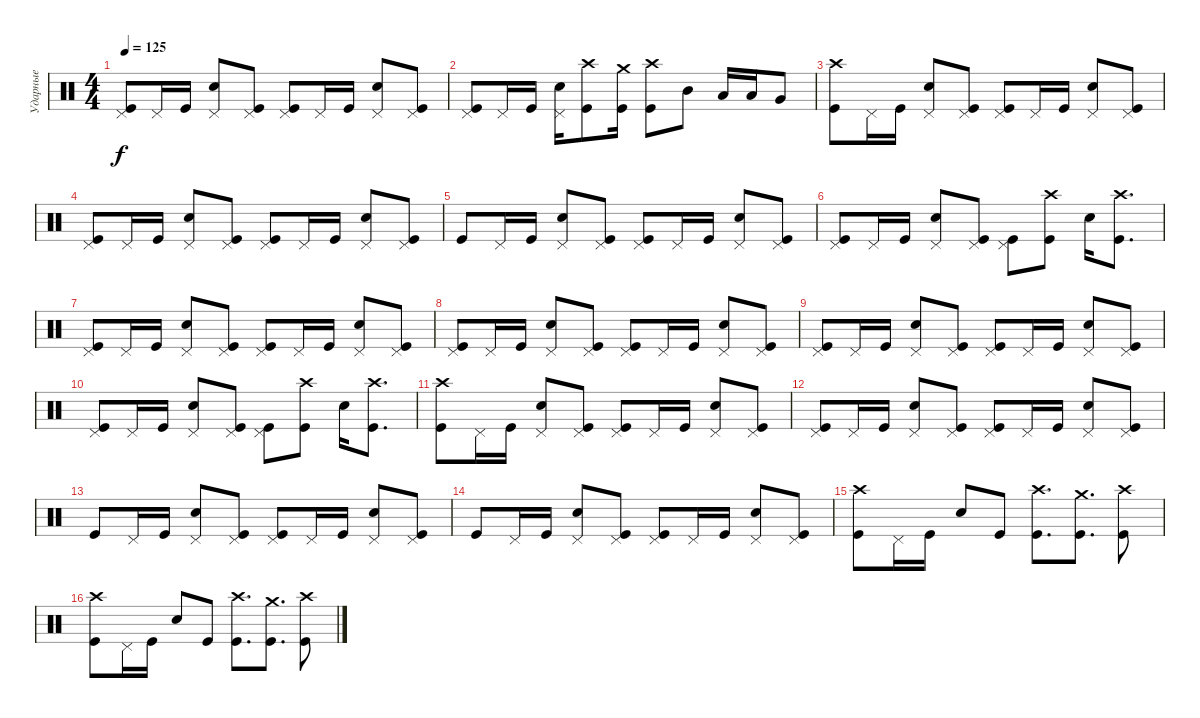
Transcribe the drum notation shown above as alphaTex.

\track ("Ударные" "Ударные") {instrument percussion}
\staff {score}
\articulation defaults
\ts (4 4)
\tempo 125
\clef neutral
\ks c
("Kick (hit)" "Pedal Hi-Hat (hit)").8{dy f} "Pedal Hi-Hat (hit)".16 "Kick (hit)".16 ("Pedal Hi-Hat (hit)" "Snare (hit) 2").8 ("Kick (hit)" "Pedal Hi-Hat (hit)").8 ("Kick (hit)" "Pedal Hi-Hat (hit)").8 "Pedal Hi-Hat (hit)".16 "Kick (hit)".16 ("Pedal Hi-Hat (hit)" "Snare (hit) 2").8 ("Kick (hit)" "Pedal Hi-Hat (hit)").8 |
("Kick (hit)" "Pedal Hi-Hat (hit)").8 "Pedal Hi-Hat (hit)".16 "Kick (hit)".16 ("Pedal Hi-Hat (hit)" "Snare (hit) 2").16 ("Kick (hit)" "Crash high (hit)").8 ("Kick (hit)" "Crash medium (hit)").16 ("Kick (hit)" "Crash high (hit)").8 "Mid Tom (hit)".8 "Low Tom (hit)".16 "Low Tom (hit)".16 "Very Low Tom (hit)".8 |
("Kick (hit)" "Crash high (hit)").8 "Pedal Hi-Hat (hit)".16 "Kick (hit)".16 ("Pedal Hi-Hat (hit)" "Snare (hit) 2").8 ("Kick (hit)" "Pedal Hi-Hat (hit)").8 ("Kick (hit)" "Pedal Hi-Hat (hit)").8 "Pedal Hi-Hat (hit)".16 "Kick (hit)".16 ("Pedal Hi-Hat (hit)" "Snare (hit) 2").8 ("Kick (hit)" "Pedal Hi-Hat (hit)").8 |
("Kick (hit)" "Pedal Hi-Hat (hit)").8 "Pedal Hi-Hat (hit)".16 "Kick (hit)".16 ("Pedal Hi-Hat (hit)" "Snare (hit) 2").8 ("Kick (hit)" "Pedal Hi-Hat (hit)").8 ("Kick (hit)" "Pedal Hi-Hat (hit)").8 "Pedal Hi-Hat (hit)".16 "Kick (hit)".16 ("Pedal Hi-Hat (hit)" "Snare (hit) 2").8 ("Kick (hit)" "Pedal Hi-Hat (hit)").8 |
"Kick (hit)".8 "Pedal Hi-Hat (hit)".16 "Kick (hit)".16 ("Pedal Hi-Hat (hit)" "Snare (hit) 2").8 ("Kick (hit)" "Pedal Hi-Hat (hit)").8 ("Kick (hit)" "Pedal Hi-Hat (hit)").8 "Pedal Hi-Hat (hit)".16 "Kick (hit)".16 ("Pedal Hi-Hat (hit)" "Snare (hit) 2").8 ("Kick (hit)" "Pedal Hi-Hat (hit)").8 |
("Kick (hit)" "Pedal Hi-Hat (hit)").8 "Pedal Hi-Hat (hit)".16 "Kick (hit)".16 ("Pedal Hi-Hat (hit)" "Snare (hit) 2").8 ("Kick (hit)" "Pedal Hi-Hat (hit)").8 ("Kick (hit)" "Pedal Hi-Hat (hit)").8 ("Kick (hit)" "Crash high (hit)").8 "Snare (hit) 2".16 ("Kick (hit)" "Crash high (hit)").8{d} |
("Kick (hit)" "Pedal Hi-Hat (hit)").8 "Pedal Hi-Hat (hit)".16 "Kick (hit)".16 ("Pedal Hi-Hat (hit)" "Snare (hit) 2").8 ("Kick (hit)" "Pedal Hi-Hat (hit)").8 ("Kick (hit)" "Pedal Hi-Hat (hit)").8 "Pedal Hi-Hat (hit)".16 "Kick (hit)".16 ("Pedal Hi-Hat (hit)" "Snare (hit) 2").8 ("Kick (hit)" "Pedal Hi-Hat (hit)").8 |
("Kick (hit)" "Pedal Hi-Hat (hit)").8 "Pedal Hi-Hat (hit)".16 "Kick (hit)".16 ("Pedal Hi-Hat (hit)" "Snare (hit) 2").8 ("Kick (hit)" "Pedal Hi-Hat (hit)").8 ("Kick (hit)" "Pedal Hi-Hat (hit)").8 "Pedal Hi-Hat (hit)".16 "Kick (hit)".16 ("Pedal Hi-Hat (hit)" "Snare (hit) 2").8 ("Kick (hit)" "Pedal Hi-Hat (hit)").8 |
("Kick (hit)" "Pedal Hi-Hat (hit)").8 "Pedal Hi-Hat (hit)".16 "Kick (hit)".16 ("Pedal Hi-Hat (hit)" "Snare (hit) 2").8 ("Kick (hit)" "Pedal Hi-Hat (hit)").8 ("Kick (hit)" "Pedal Hi-Hat (hit)").8 "Pedal Hi-Hat (hit)".16 "Kick (hit)".16 ("Pedal Hi-Hat (hit)" "Snare (hit) 2").8 ("Kick (hit)" "Pedal Hi-Hat (hit)").8 |
("Kick (hit)" "Pedal Hi-Hat (hit)").8 "Pedal Hi-Hat (hit)".16 "Kick (hit)".16 ("Pedal Hi-Hat (hit)" "Snare (hit) 2").8 ("Kick (hit)" "Pedal Hi-Hat (hit)").8 ("Kick (hit)" "Pedal Hi-Hat (hit)").8 ("Kick (hit)" "Crash high (hit)").8 "Snare (hit) 2".16 ("Kick (hit)" "Crash high (hit)").8{d} |
("Kick (hit)" "Crash high (hit)").8 "Pedal Hi-Hat (hit)".16 "Kick (hit)".16 ("Pedal Hi-Hat (hit)" "Snare (hit) 2").8 ("Kick (hit)" "Pedal Hi-Hat (hit)").8 ("Kick (hit)" "Pedal Hi-Hat (hit)").8 "Pedal Hi-Hat (hit)".16 "Kick (hit)".16 ("Pedal Hi-Hat (hit)" "Snare (hit) 2").8 ("Kick (hit)" "Pedal Hi-Hat (hit)").8 |
("Kick (hit)" "Pedal Hi-Hat (hit)").8 "Pedal Hi-Hat (hit)".16 "Kick (hit)".16 ("Pedal Hi-Hat (hit)" "Snare (hit) 2").8 ("Kick (hit)" "Pedal Hi-Hat (hit)").8 ("Kick (hit)" "Pedal Hi-Hat (hit)").8 "Pedal Hi-Hat (hit)".16 "Kick (hit)".16 ("Pedal Hi-Hat (hit)" "Snare (hit) 2").8 ("Kick (hit)" "Pedal Hi-Hat (hit)").8 |
"Kick (hit)".8 "Pedal Hi-Hat (hit)".16 "Kick (hit)".16 ("Pedal Hi-Hat (hit)" "Snare (hit) 2").8 ("Kick (hit)" "Pedal Hi-Hat (hit)").8 ("Kick (hit)" "Pedal Hi-Hat (hit)").8 "Pedal Hi-Hat (hit)".16 "Kick (hit)".16 ("Pedal Hi-Hat (hit)" "Snare (hit) 2").8 ("Kick (hit)" "Pedal Hi-Hat (hit)").8 |
"Kick (hit)".8 "Pedal Hi-Hat (hit)".16 "Kick (hit)".16 ("Pedal Hi-Hat (hit)" "Snare (hit) 2").8 ("Kick (hit)" "Pedal Hi-Hat (hit)").8 ("Kick (hit)" "Pedal Hi-Hat (hit)").8 "Pedal Hi-Hat (hit)".16 "Kick (hit)".16 ("Pedal Hi-Hat (hit)" "Snare (hit) 2").8 ("Kick (hit)" "Pedal Hi-Hat (hit)").8 |
("Kick (hit)" "Crash high (hit)").8 "Pedal Hi-Hat (hit)".16 "Kick (hit)".16 "Snare (hit) 2".8 "Kick (hit)".8 ("Kick (hit)" "Crash high (hit)").8{d} ("Kick (hit)" "Crash medium (hit)").8{d} ("Kick (hit)" "Crash high (hit)").8 |
("Kick (hit)" "Crash high (hit)").8 "Pedal Hi-Hat (hit)".16 "Kick (hit)".16 "Snare (hit) 2".8 "Kick (hit)".8 ("Kick (hit)" "Crash high (hit)").8{d} ("Kick (hit)" "Crash medium (hit)").8{d} ("Kick (hit)" "Crash high (hit)").8
